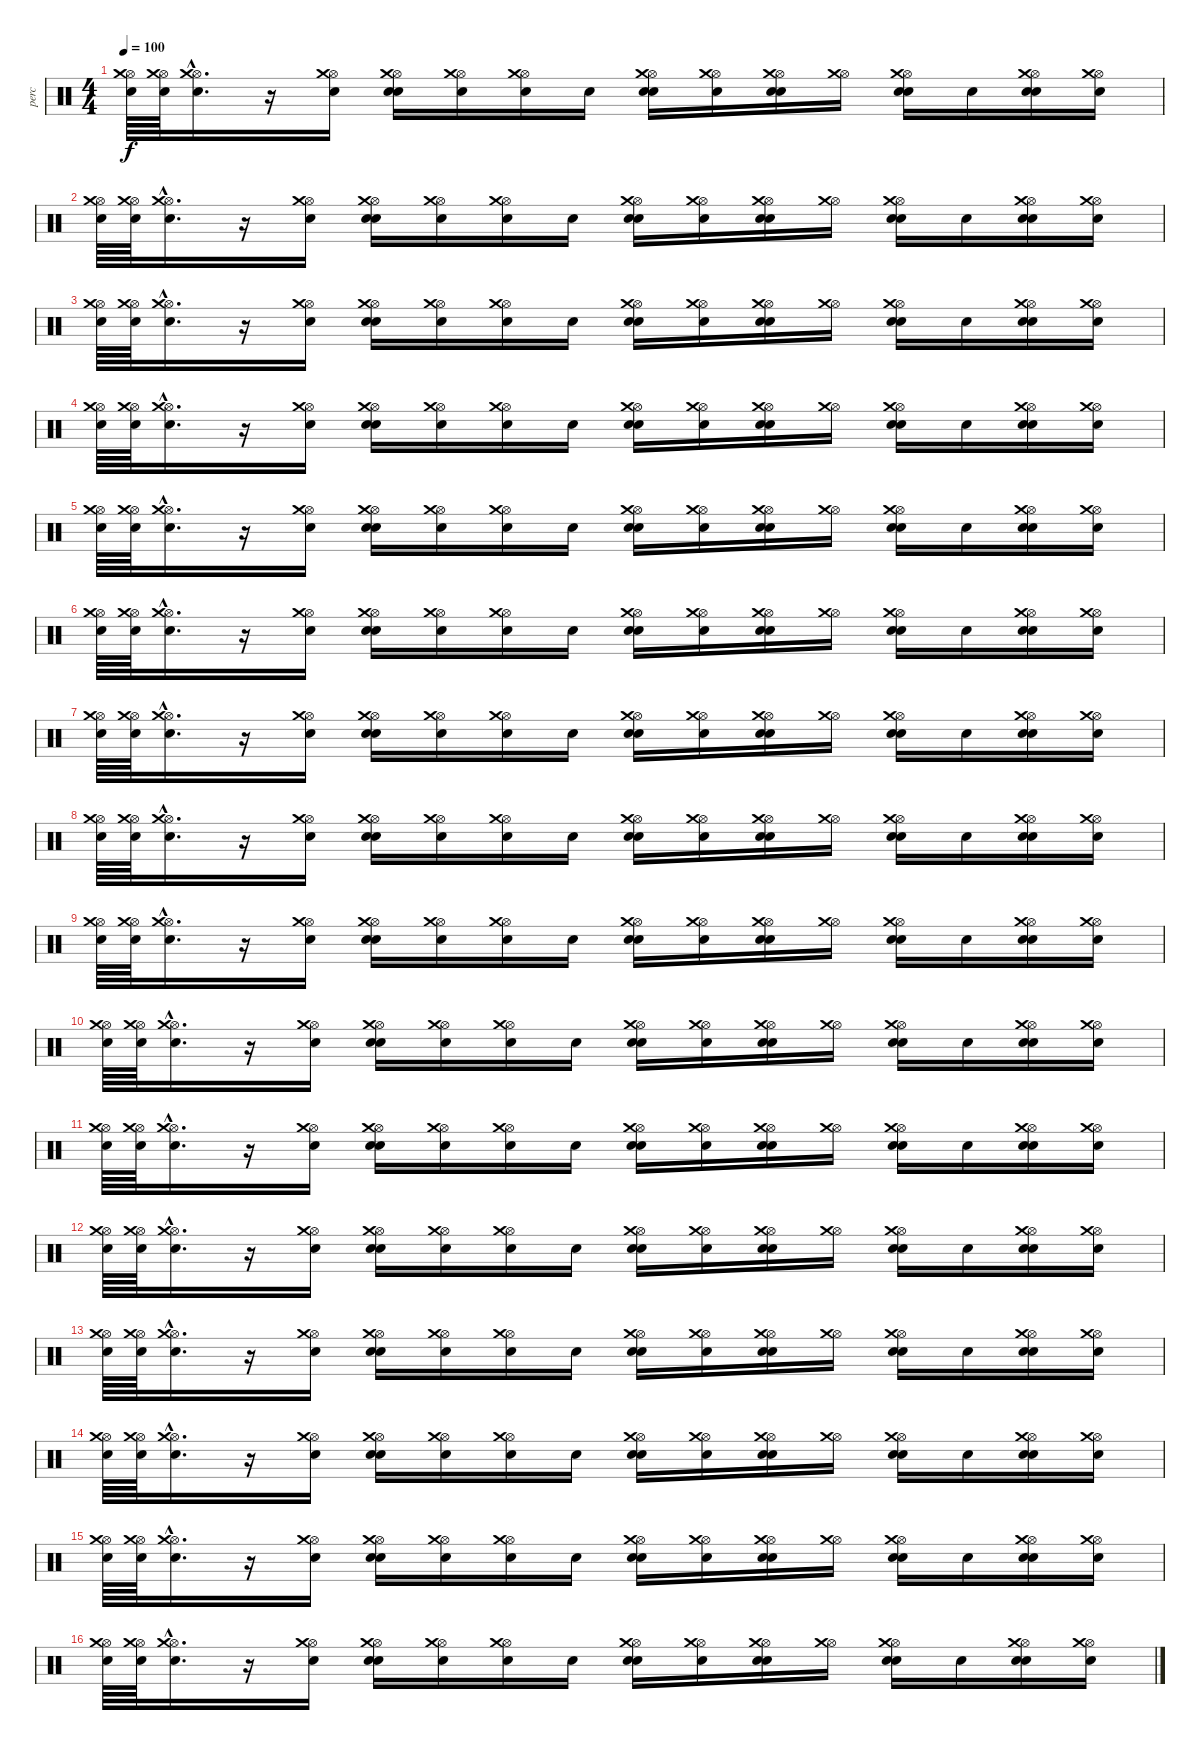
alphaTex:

\track ("perc" "perc") {instrument percussion}
\staff {score}
\articulation defaults
\ts (4 4)
\tempo 100
\clef neutral
\ks c
("Hi-Hat (open)" "Crash medium (hit)" "Electric Snare (hit)").64{dy f} ("Hi-Hat (open)" "Crash medium (hit)" "Electric Snare (hit)").64 ("Hi-Hat (open)"{hac} "Crash medium (hit)"{hac} "Electric Snare (hit)"{hac}).16{d} r.16 ("Hi-Hat (open)" "Crash medium (hit)" "Electric Snare (hit)").16 ("Hi-Hat (open)" "Crash medium (hit)" "Electric Snare (hit)" "Snare (hit) 2").16 ("Hi-Hat (open)" "Crash medium (hit)" "Electric Snare (hit)").16 ("Hi-Hat (open)" "Crash medium (hit)" "Snare (hit) 2").16 "Electric Snare (hit)".16 ("Hi-Hat (open)" "Crash medium (hit)" "Electric Snare (hit)" "Snare (hit) 2").16 ("Hi-Hat (open)" "Crash medium (hit)" "Electric Snare (hit)").16 ("Hi-Hat (open)" "Crash medium (hit)" "Electric Snare (hit)" "Snare (hit) 2").16 ("Hi-Hat (open)" "Crash medium (hit)").16 ("Hi-Hat (open)" "Crash medium (hit)" "Electric Snare (hit)" "Snare (hit) 2").16 "Electric Snare (hit)".16 ("Hi-Hat (open)" "Crash medium (hit)" "Electric Snare (hit)" "Snare (hit) 2").16 ("Hi-Hat (open)" "Crash medium (hit)" "Electric Snare (hit)").16 |
("Hi-Hat (open)" "Crash medium (hit)" "Electric Snare (hit)").64 ("Hi-Hat (open)" "Crash medium (hit)" "Electric Snare (hit)").64 ("Hi-Hat (open)"{hac} "Crash medium (hit)"{hac} "Electric Snare (hit)"{hac}).16{d} r.16 ("Hi-Hat (open)" "Crash medium (hit)" "Electric Snare (hit)").16 ("Hi-Hat (open)" "Crash medium (hit)" "Electric Snare (hit)" "Snare (hit) 2").16 ("Hi-Hat (open)" "Crash medium (hit)" "Electric Snare (hit)").16 ("Hi-Hat (open)" "Crash medium (hit)" "Snare (hit) 2").16 "Electric Snare (hit)".16 ("Hi-Hat (open)" "Crash medium (hit)" "Electric Snare (hit)" "Snare (hit) 2").16 ("Hi-Hat (open)" "Crash medium (hit)" "Electric Snare (hit)").16 ("Hi-Hat (open)" "Crash medium (hit)" "Electric Snare (hit)" "Snare (hit) 2").16 ("Hi-Hat (open)" "Crash medium (hit)").16 ("Hi-Hat (open)" "Crash medium (hit)" "Electric Snare (hit)" "Snare (hit) 2").16 "Electric Snare (hit)".16 ("Hi-Hat (open)" "Crash medium (hit)" "Electric Snare (hit)" "Snare (hit) 2").16 ("Hi-Hat (open)" "Crash medium (hit)" "Electric Snare (hit)").16 |
("Hi-Hat (open)" "Crash medium (hit)" "Electric Snare (hit)").64 ("Hi-Hat (open)" "Crash medium (hit)" "Electric Snare (hit)").64 ("Hi-Hat (open)"{hac} "Crash medium (hit)"{hac} "Electric Snare (hit)"{hac}).16{d} r.16 ("Hi-Hat (open)" "Crash medium (hit)" "Electric Snare (hit)").16 ("Hi-Hat (open)" "Crash medium (hit)" "Electric Snare (hit)" "Snare (hit) 2").16 ("Hi-Hat (open)" "Crash medium (hit)" "Electric Snare (hit)").16 ("Hi-Hat (open)" "Crash medium (hit)" "Snare (hit) 2").16 "Electric Snare (hit)".16 ("Hi-Hat (open)" "Crash medium (hit)" "Electric Snare (hit)" "Snare (hit) 2").16 ("Hi-Hat (open)" "Crash medium (hit)" "Electric Snare (hit)").16 ("Hi-Hat (open)" "Crash medium (hit)" "Electric Snare (hit)" "Snare (hit) 2").16 ("Hi-Hat (open)" "Crash medium (hit)").16 ("Hi-Hat (open)" "Crash medium (hit)" "Electric Snare (hit)" "Snare (hit) 2").16 "Electric Snare (hit)".16 ("Hi-Hat (open)" "Crash medium (hit)" "Electric Snare (hit)" "Snare (hit) 2").16 ("Hi-Hat (open)" "Crash medium (hit)" "Electric Snare (hit)").16 |
("Hi-Hat (open)" "Crash medium (hit)" "Electric Snare (hit)").64 ("Hi-Hat (open)" "Crash medium (hit)" "Electric Snare (hit)").64 ("Hi-Hat (open)"{hac} "Crash medium (hit)"{hac} "Electric Snare (hit)"{hac}).16{d} r.16 ("Hi-Hat (open)" "Crash medium (hit)" "Electric Snare (hit)").16 ("Hi-Hat (open)" "Crash medium (hit)" "Electric Snare (hit)" "Snare (hit) 2").16 ("Hi-Hat (open)" "Crash medium (hit)" "Electric Snare (hit)").16 ("Hi-Hat (open)" "Crash medium (hit)" "Snare (hit) 2").16 "Electric Snare (hit)".16 ("Hi-Hat (open)" "Crash medium (hit)" "Electric Snare (hit)" "Snare (hit) 2").16 ("Hi-Hat (open)" "Crash medium (hit)" "Electric Snare (hit)").16 ("Hi-Hat (open)" "Crash medium (hit)" "Electric Snare (hit)" "Snare (hit) 2").16 ("Hi-Hat (open)" "Crash medium (hit)").16 ("Hi-Hat (open)" "Crash medium (hit)" "Electric Snare (hit)" "Snare (hit) 2").16 "Electric Snare (hit)".16 ("Hi-Hat (open)" "Crash medium (hit)" "Electric Snare (hit)" "Snare (hit) 2").16 ("Hi-Hat (open)" "Crash medium (hit)" "Electric Snare (hit)").16 |
("Hi-Hat (open)" "Crash medium (hit)" "Electric Snare (hit)").64 ("Hi-Hat (open)" "Crash medium (hit)" "Electric Snare (hit)").64 ("Hi-Hat (open)"{hac} "Crash medium (hit)"{hac} "Electric Snare (hit)"{hac}).16{d} r.16 ("Hi-Hat (open)" "Crash medium (hit)" "Electric Snare (hit)").16 ("Hi-Hat (open)" "Crash medium (hit)" "Electric Snare (hit)" "Snare (hit) 2").16 ("Hi-Hat (open)" "Crash medium (hit)" "Electric Snare (hit)").16 ("Hi-Hat (open)" "Crash medium (hit)" "Snare (hit) 2").16 "Electric Snare (hit)".16 ("Hi-Hat (open)" "Crash medium (hit)" "Electric Snare (hit)" "Snare (hit) 2").16 ("Hi-Hat (open)" "Crash medium (hit)" "Electric Snare (hit)").16 ("Hi-Hat (open)" "Crash medium (hit)" "Electric Snare (hit)" "Snare (hit) 2").16 ("Hi-Hat (open)" "Crash medium (hit)").16 ("Hi-Hat (open)" "Crash medium (hit)" "Electric Snare (hit)" "Snare (hit) 2").16 "Electric Snare (hit)".16 ("Hi-Hat (open)" "Crash medium (hit)" "Electric Snare (hit)" "Snare (hit) 2").16 ("Hi-Hat (open)" "Crash medium (hit)" "Electric Snare (hit)").16 |
("Hi-Hat (open)" "Crash medium (hit)" "Electric Snare (hit)").64 ("Hi-Hat (open)" "Crash medium (hit)" "Electric Snare (hit)").64 ("Hi-Hat (open)"{hac} "Crash medium (hit)"{hac} "Electric Snare (hit)"{hac}).16{d} r.16 ("Hi-Hat (open)" "Crash medium (hit)" "Electric Snare (hit)").16 ("Hi-Hat (open)" "Crash medium (hit)" "Electric Snare (hit)" "Snare (hit) 2").16 ("Hi-Hat (open)" "Crash medium (hit)" "Electric Snare (hit)").16 ("Hi-Hat (open)" "Crash medium (hit)" "Snare (hit) 2").16 "Electric Snare (hit)".16 ("Hi-Hat (open)" "Crash medium (hit)" "Electric Snare (hit)" "Snare (hit) 2").16 ("Hi-Hat (open)" "Crash medium (hit)" "Electric Snare (hit)").16 ("Hi-Hat (open)" "Crash medium (hit)" "Electric Snare (hit)" "Snare (hit) 2").16 ("Hi-Hat (open)" "Crash medium (hit)").16 ("Hi-Hat (open)" "Crash medium (hit)" "Electric Snare (hit)" "Snare (hit) 2").16 "Electric Snare (hit)".16 ("Hi-Hat (open)" "Crash medium (hit)" "Electric Snare (hit)" "Snare (hit) 2").16 ("Hi-Hat (open)" "Crash medium (hit)" "Electric Snare (hit)").16 |
("Hi-Hat (open)" "Crash medium (hit)" "Electric Snare (hit)").64 ("Hi-Hat (open)" "Crash medium (hit)" "Electric Snare (hit)").64 ("Hi-Hat (open)"{hac} "Crash medium (hit)"{hac} "Electric Snare (hit)"{hac}).16{d} r.16 ("Hi-Hat (open)" "Crash medium (hit)" "Electric Snare (hit)").16 ("Hi-Hat (open)" "Crash medium (hit)" "Electric Snare (hit)" "Snare (hit) 2").16 ("Hi-Hat (open)" "Crash medium (hit)" "Electric Snare (hit)").16 ("Hi-Hat (open)" "Crash medium (hit)" "Snare (hit) 2").16 "Electric Snare (hit)".16 ("Hi-Hat (open)" "Crash medium (hit)" "Electric Snare (hit)" "Snare (hit) 2").16 ("Hi-Hat (open)" "Crash medium (hit)" "Electric Snare (hit)").16 ("Hi-Hat (open)" "Crash medium (hit)" "Electric Snare (hit)" "Snare (hit) 2").16 ("Hi-Hat (open)" "Crash medium (hit)").16 ("Hi-Hat (open)" "Crash medium (hit)" "Electric Snare (hit)" "Snare (hit) 2").16 "Electric Snare (hit)".16 ("Hi-Hat (open)" "Crash medium (hit)" "Electric Snare (hit)" "Snare (hit) 2").16 ("Hi-Hat (open)" "Crash medium (hit)" "Electric Snare (hit)").16 |
("Hi-Hat (open)" "Crash medium (hit)" "Electric Snare (hit)").64 ("Hi-Hat (open)" "Crash medium (hit)" "Electric Snare (hit)").64 ("Hi-Hat (open)"{hac} "Crash medium (hit)"{hac} "Electric Snare (hit)"{hac}).16{d} r.16 ("Hi-Hat (open)" "Crash medium (hit)" "Electric Snare (hit)").16 ("Hi-Hat (open)" "Crash medium (hit)" "Electric Snare (hit)" "Snare (hit) 2").16 ("Hi-Hat (open)" "Crash medium (hit)" "Electric Snare (hit)").16 ("Hi-Hat (open)" "Crash medium (hit)" "Snare (hit) 2").16 "Electric Snare (hit)".16 ("Hi-Hat (open)" "Crash medium (hit)" "Electric Snare (hit)" "Snare (hit) 2").16 ("Hi-Hat (open)" "Crash medium (hit)" "Electric Snare (hit)").16 ("Hi-Hat (open)" "Crash medium (hit)" "Electric Snare (hit)" "Snare (hit) 2").16 ("Hi-Hat (open)" "Crash medium (hit)").16 ("Hi-Hat (open)" "Crash medium (hit)" "Electric Snare (hit)" "Snare (hit) 2").16 "Electric Snare (hit)".16 ("Hi-Hat (open)" "Crash medium (hit)" "Electric Snare (hit)" "Snare (hit) 2").16 ("Hi-Hat (open)" "Crash medium (hit)" "Electric Snare (hit)").16 |
("Hi-Hat (open)" "Crash medium (hit)" "Electric Snare (hit)").64 ("Hi-Hat (open)" "Crash medium (hit)" "Electric Snare (hit)").64 ("Hi-Hat (open)"{hac} "Crash medium (hit)"{hac} "Electric Snare (hit)"{hac}).16{d} r.16 ("Hi-Hat (open)" "Crash medium (hit)" "Electric Snare (hit)").16 ("Hi-Hat (open)" "Crash medium (hit)" "Electric Snare (hit)" "Snare (hit) 2").16 ("Hi-Hat (open)" "Crash medium (hit)" "Electric Snare (hit)").16 ("Hi-Hat (open)" "Crash medium (hit)" "Snare (hit) 2").16 "Electric Snare (hit)".16 ("Hi-Hat (open)" "Crash medium (hit)" "Electric Snare (hit)" "Snare (hit) 2").16 ("Hi-Hat (open)" "Crash medium (hit)" "Electric Snare (hit)").16 ("Hi-Hat (open)" "Crash medium (hit)" "Electric Snare (hit)" "Snare (hit) 2").16 ("Hi-Hat (open)" "Crash medium (hit)").16 ("Hi-Hat (open)" "Crash medium (hit)" "Electric Snare (hit)" "Snare (hit) 2").16 "Electric Snare (hit)".16 ("Hi-Hat (open)" "Crash medium (hit)" "Electric Snare (hit)" "Snare (hit) 2").16 ("Hi-Hat (open)" "Crash medium (hit)" "Electric Snare (hit)").16 |
("Hi-Hat (open)" "Crash medium (hit)" "Electric Snare (hit)").64 ("Hi-Hat (open)" "Crash medium (hit)" "Electric Snare (hit)").64 ("Hi-Hat (open)"{hac} "Crash medium (hit)"{hac} "Electric Snare (hit)"{hac}).16{d} r.16 ("Hi-Hat (open)" "Crash medium (hit)" "Electric Snare (hit)").16 ("Hi-Hat (open)" "Crash medium (hit)" "Electric Snare (hit)" "Snare (hit) 2").16 ("Hi-Hat (open)" "Crash medium (hit)" "Electric Snare (hit)").16 ("Hi-Hat (open)" "Crash medium (hit)" "Snare (hit) 2").16 "Electric Snare (hit)".16 ("Hi-Hat (open)" "Crash medium (hit)" "Electric Snare (hit)" "Snare (hit) 2").16 ("Hi-Hat (open)" "Crash medium (hit)" "Electric Snare (hit)").16 ("Hi-Hat (open)" "Crash medium (hit)" "Electric Snare (hit)" "Snare (hit) 2").16 ("Hi-Hat (open)" "Crash medium (hit)").16 ("Hi-Hat (open)" "Crash medium (hit)" "Electric Snare (hit)" "Snare (hit) 2").16 "Electric Snare (hit)".16 ("Hi-Hat (open)" "Crash medium (hit)" "Electric Snare (hit)" "Snare (hit) 2").16 ("Hi-Hat (open)" "Crash medium (hit)" "Electric Snare (hit)").16 |
("Hi-Hat (open)" "Crash medium (hit)" "Electric Snare (hit)").64 ("Hi-Hat (open)" "Crash medium (hit)" "Electric Snare (hit)").64 ("Hi-Hat (open)"{hac} "Crash medium (hit)"{hac} "Electric Snare (hit)"{hac}).16{d} r.16 ("Hi-Hat (open)" "Crash medium (hit)" "Electric Snare (hit)").16 ("Hi-Hat (open)" "Crash medium (hit)" "Electric Snare (hit)" "Snare (hit) 2").16 ("Hi-Hat (open)" "Crash medium (hit)" "Electric Snare (hit)").16 ("Hi-Hat (open)" "Crash medium (hit)" "Snare (hit) 2").16 "Electric Snare (hit)".16 ("Hi-Hat (open)" "Crash medium (hit)" "Electric Snare (hit)" "Snare (hit) 2").16 ("Hi-Hat (open)" "Crash medium (hit)" "Electric Snare (hit)").16 ("Hi-Hat (open)" "Crash medium (hit)" "Electric Snare (hit)" "Snare (hit) 2").16 ("Hi-Hat (open)" "Crash medium (hit)").16 ("Hi-Hat (open)" "Crash medium (hit)" "Electric Snare (hit)" "Snare (hit) 2").16 "Electric Snare (hit)".16 ("Hi-Hat (open)" "Crash medium (hit)" "Electric Snare (hit)" "Snare (hit) 2").16 ("Hi-Hat (open)" "Crash medium (hit)" "Electric Snare (hit)").16 |
("Hi-Hat (open)" "Crash medium (hit)" "Electric Snare (hit)").64 ("Hi-Hat (open)" "Crash medium (hit)" "Electric Snare (hit)").64 ("Hi-Hat (open)"{hac} "Crash medium (hit)"{hac} "Electric Snare (hit)"{hac}).16{d} r.16 ("Hi-Hat (open)" "Crash medium (hit)" "Electric Snare (hit)").16 ("Hi-Hat (open)" "Crash medium (hit)" "Electric Snare (hit)" "Snare (hit) 2").16 ("Hi-Hat (open)" "Crash medium (hit)" "Electric Snare (hit)").16 ("Hi-Hat (open)" "Crash medium (hit)" "Snare (hit) 2").16 "Electric Snare (hit)".16 ("Hi-Hat (open)" "Crash medium (hit)" "Electric Snare (hit)" "Snare (hit) 2").16 ("Hi-Hat (open)" "Crash medium (hit)" "Electric Snare (hit)").16 ("Hi-Hat (open)" "Crash medium (hit)" "Electric Snare (hit)" "Snare (hit) 2").16 ("Hi-Hat (open)" "Crash medium (hit)").16 ("Hi-Hat (open)" "Crash medium (hit)" "Electric Snare (hit)" "Snare (hit) 2").16 "Electric Snare (hit)".16 ("Hi-Hat (open)" "Crash medium (hit)" "Electric Snare (hit)" "Snare (hit) 2").16 ("Hi-Hat (open)" "Crash medium (hit)" "Electric Snare (hit)").16 |
("Hi-Hat (open)" "Crash medium (hit)" "Electric Snare (hit)").64 ("Hi-Hat (open)" "Crash medium (hit)" "Electric Snare (hit)").64 ("Hi-Hat (open)"{hac} "Crash medium (hit)"{hac} "Electric Snare (hit)"{hac}).16{d} r.16 ("Hi-Hat (open)" "Crash medium (hit)" "Electric Snare (hit)").16 ("Hi-Hat (open)" "Crash medium (hit)" "Electric Snare (hit)" "Snare (hit) 2").16 ("Hi-Hat (open)" "Crash medium (hit)" "Electric Snare (hit)").16 ("Hi-Hat (open)" "Crash medium (hit)" "Snare (hit) 2").16 "Electric Snare (hit)".16 ("Hi-Hat (open)" "Crash medium (hit)" "Electric Snare (hit)" "Snare (hit) 2").16 ("Hi-Hat (open)" "Crash medium (hit)" "Electric Snare (hit)").16 ("Hi-Hat (open)" "Crash medium (hit)" "Electric Snare (hit)" "Snare (hit) 2").16 ("Hi-Hat (open)" "Crash medium (hit)").16 ("Hi-Hat (open)" "Crash medium (hit)" "Electric Snare (hit)" "Snare (hit) 2").16 "Electric Snare (hit)".16 ("Hi-Hat (open)" "Crash medium (hit)" "Electric Snare (hit)" "Snare (hit) 2").16 ("Hi-Hat (open)" "Crash medium (hit)" "Electric Snare (hit)").16 |
("Hi-Hat (open)" "Crash medium (hit)" "Electric Snare (hit)").64 ("Hi-Hat (open)" "Crash medium (hit)" "Electric Snare (hit)").64 ("Hi-Hat (open)"{hac} "Crash medium (hit)"{hac} "Electric Snare (hit)"{hac}).16{d} r.16 ("Hi-Hat (open)" "Crash medium (hit)" "Electric Snare (hit)").16 ("Hi-Hat (open)" "Crash medium (hit)" "Electric Snare (hit)" "Snare (hit) 2").16 ("Hi-Hat (open)" "Crash medium (hit)" "Electric Snare (hit)").16 ("Hi-Hat (open)" "Crash medium (hit)" "Snare (hit) 2").16 "Electric Snare (hit)".16 ("Hi-Hat (open)" "Crash medium (hit)" "Electric Snare (hit)" "Snare (hit) 2").16 ("Hi-Hat (open)" "Crash medium (hit)" "Electric Snare (hit)").16 ("Hi-Hat (open)" "Crash medium (hit)" "Electric Snare (hit)" "Snare (hit) 2").16 ("Hi-Hat (open)" "Crash medium (hit)").16 ("Hi-Hat (open)" "Crash medium (hit)" "Electric Snare (hit)" "Snare (hit) 2").16 "Electric Snare (hit)".16 ("Hi-Hat (open)" "Crash medium (hit)" "Electric Snare (hit)" "Snare (hit) 2").16 ("Hi-Hat (open)" "Crash medium (hit)" "Electric Snare (hit)").16 |
("Hi-Hat (open)" "Crash medium (hit)" "Electric Snare (hit)").64 ("Hi-Hat (open)" "Crash medium (hit)" "Electric Snare (hit)").64 ("Hi-Hat (open)"{hac} "Crash medium (hit)"{hac} "Electric Snare (hit)"{hac}).16{d} r.16 ("Hi-Hat (open)" "Crash medium (hit)" "Electric Snare (hit)").16 ("Hi-Hat (open)" "Crash medium (hit)" "Electric Snare (hit)" "Snare (hit) 2").16 ("Hi-Hat (open)" "Crash medium (hit)" "Electric Snare (hit)").16 ("Hi-Hat (open)" "Crash medium (hit)" "Snare (hit) 2").16 "Electric Snare (hit)".16 ("Hi-Hat (open)" "Crash medium (hit)" "Electric Snare (hit)" "Snare (hit) 2").16 ("Hi-Hat (open)" "Crash medium (hit)" "Electric Snare (hit)").16 ("Hi-Hat (open)" "Crash medium (hit)" "Electric Snare (hit)" "Snare (hit) 2").16 ("Hi-Hat (open)" "Crash medium (hit)").16 ("Hi-Hat (open)" "Crash medium (hit)" "Electric Snare (hit)" "Snare (hit) 2").16 "Electric Snare (hit)".16 ("Hi-Hat (open)" "Crash medium (hit)" "Electric Snare (hit)" "Snare (hit) 2").16 ("Hi-Hat (open)" "Crash medium (hit)" "Electric Snare (hit)").16 |
("Hi-Hat (open)" "Crash medium (hit)" "Electric Snare (hit)").64 ("Hi-Hat (open)" "Crash medium (hit)" "Electric Snare (hit)").64 ("Hi-Hat (open)"{hac} "Crash medium (hit)"{hac} "Electric Snare (hit)"{hac}).16{d} r.16 ("Hi-Hat (open)" "Crash medium (hit)" "Electric Snare (hit)").16 ("Hi-Hat (open)" "Crash medium (hit)" "Electric Snare (hit)" "Snare (hit) 2").16 ("Hi-Hat (open)" "Crash medium (hit)" "Electric Snare (hit)").16 ("Hi-Hat (open)" "Crash medium (hit)" "Snare (hit) 2").16 "Electric Snare (hit)".16 ("Hi-Hat (open)" "Crash medium (hit)" "Electric Snare (hit)" "Snare (hit) 2").16 ("Hi-Hat (open)" "Crash medium (hit)" "Electric Snare (hit)").16 ("Hi-Hat (open)" "Crash medium (hit)" "Electric Snare (hit)" "Snare (hit) 2").16 ("Hi-Hat (open)" "Crash medium (hit)").16 ("Hi-Hat (open)" "Crash medium (hit)" "Electric Snare (hit)" "Snare (hit) 2").16 "Electric Snare (hit)".16 ("Hi-Hat (open)" "Crash medium (hit)" "Electric Snare (hit)" "Snare (hit) 2").16 ("Hi-Hat (open)" "Crash medium (hit)" "Electric Snare (hit)").16
